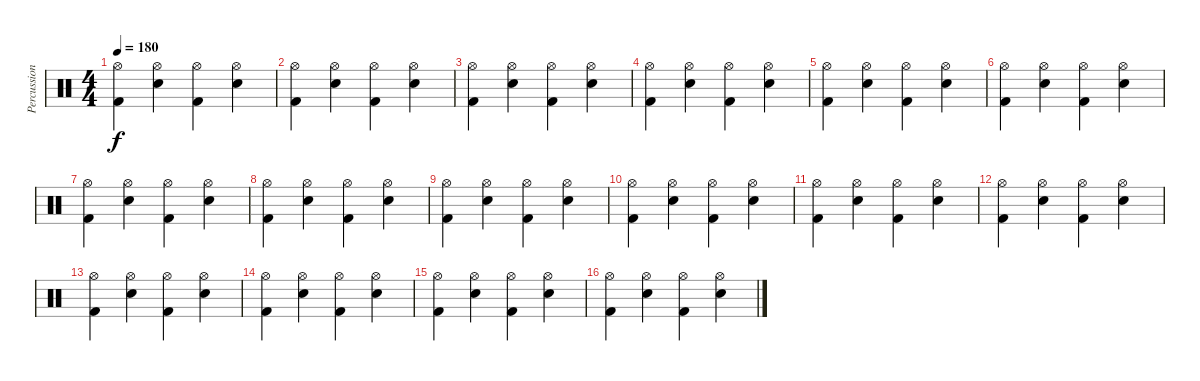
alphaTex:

\track ("Percussion" "Percussion") {instrument percussion}
\staff {score}
\articulation defaults
\ts (4 4)
\tempo 180
\clef neutral
\ks c
("Hi-Hat (open)" "Kick (hit) 2").4{dy f} ("Hi-Hat (open)" "Snare (hit) 2").4 ("Hi-Hat (open)" "Kick (hit) 2").4 ("Hi-Hat (open)" "Snare (hit) 2").4 |
("Hi-Hat (open)" "Kick (hit) 2").4 ("Hi-Hat (open)" "Snare (hit) 2").4 ("Hi-Hat (open)" "Kick (hit) 2").4 ("Hi-Hat (open)" "Snare (hit) 2").4 |
("Hi-Hat (open)" "Kick (hit) 2").4 ("Hi-Hat (open)" "Snare (hit) 2").4 ("Hi-Hat (open)" "Kick (hit) 2").4 ("Hi-Hat (open)" "Snare (hit) 2").4 |
("Hi-Hat (open)" "Kick (hit) 2").4 ("Hi-Hat (open)" "Snare (hit) 2").4 ("Hi-Hat (open)" "Kick (hit) 2").4 ("Hi-Hat (open)" "Snare (hit) 2").4 |
("Hi-Hat (open)" "Kick (hit) 2").4 ("Hi-Hat (open)" "Snare (hit) 2").4 ("Hi-Hat (open)" "Kick (hit) 2").4 ("Hi-Hat (open)" "Snare (hit) 2").4 |
("Hi-Hat (open)" "Kick (hit) 2").4 ("Hi-Hat (open)" "Snare (hit) 2").4 ("Hi-Hat (open)" "Kick (hit) 2").4 ("Hi-Hat (open)" "Snare (hit) 2").4 |
("Hi-Hat (open)" "Kick (hit) 2").4 ("Hi-Hat (open)" "Snare (hit) 2").4 ("Hi-Hat (open)" "Kick (hit) 2").4 ("Hi-Hat (open)" "Snare (hit) 2").4 |
("Hi-Hat (open)" "Kick (hit) 2").4 ("Hi-Hat (open)" "Snare (hit) 2").4 ("Hi-Hat (open)" "Kick (hit) 2").4 ("Hi-Hat (open)" "Snare (hit) 2").4 |
("Hi-Hat (open)" "Kick (hit) 2").4 ("Hi-Hat (open)" "Snare (hit) 2").4 ("Hi-Hat (open)" "Kick (hit) 2").4 ("Hi-Hat (open)" "Snare (hit) 2").4 |
("Hi-Hat (open)" "Kick (hit) 2").4 ("Hi-Hat (open)" "Snare (hit) 2").4 ("Hi-Hat (open)" "Kick (hit) 2").4 ("Hi-Hat (open)" "Snare (hit) 2").4 |
("Hi-Hat (open)" "Kick (hit) 2").4 ("Hi-Hat (open)" "Snare (hit) 2").4 ("Hi-Hat (open)" "Kick (hit) 2").4 ("Hi-Hat (open)" "Snare (hit) 2").4 |
("Hi-Hat (open)" "Kick (hit) 2").4 ("Hi-Hat (open)" "Snare (hit) 2").4 ("Hi-Hat (open)" "Kick (hit) 2").4 ("Hi-Hat (open)" "Snare (hit) 2").4 |
("Hi-Hat (open)" "Kick (hit) 2").4 ("Hi-Hat (open)" "Snare (hit) 2").4 ("Hi-Hat (open)" "Kick (hit) 2").4 ("Hi-Hat (open)" "Snare (hit) 2").4 |
("Hi-Hat (open)" "Kick (hit) 2").4 ("Hi-Hat (open)" "Snare (hit) 2").4 ("Hi-Hat (open)" "Kick (hit) 2").4 ("Hi-Hat (open)" "Snare (hit) 2").4 |
("Hi-Hat (open)" "Kick (hit) 2").4 ("Hi-Hat (open)" "Snare (hit) 2").4 ("Hi-Hat (open)" "Kick (hit) 2").4 ("Hi-Hat (open)" "Snare (hit) 2").4 |
("Hi-Hat (open)" "Kick (hit) 2").4 ("Hi-Hat (open)" "Snare (hit) 2").4 ("Hi-Hat (open)" "Kick (hit) 2").4 ("Hi-Hat (open)" "Snare (hit) 2").4
